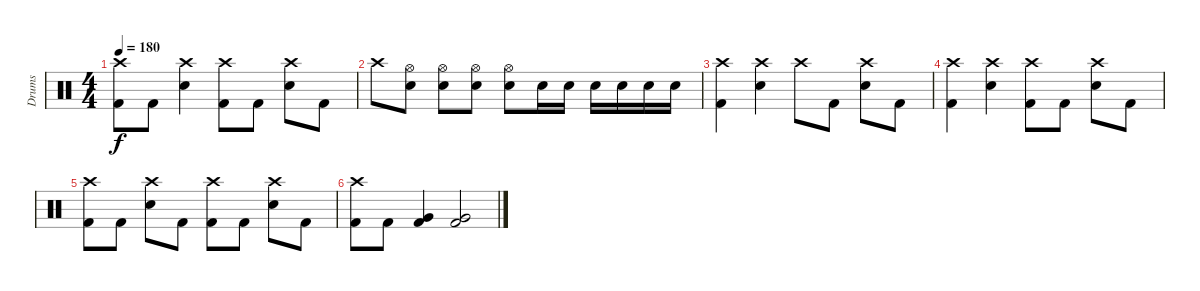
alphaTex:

\track ("Drums" "Drums") {instrument percussion}
\staff {score}
\articulation defaults
\ts (4 4)
\tempo 180
\clef neutral
\ks c
("Crash high (hit)"{t} "Kick (hit) 2"{t}).8{dy f} "Kick (hit) 2".8 ("Crash high (hit)" "Electric Snare (hit)").4 ("Crash high (hit)" "Kick (hit) 2").8 "Kick (hit) 2".8 ("Crash high (hit)" "Electric Snare (hit)").8 "Kick (hit) 2".8 |
"Crash high (hit)".8 ("Hi-Hat (open)" "Electric Snare (hit)").8 ("Hi-Hat (open)" "Electric Snare (hit)").8 ("Hi-Hat (open)" "Electric Snare (hit)").8 ("Hi-Hat (open)" "Electric Snare (hit)").8 "Electric Snare (hit)".16 "Electric Snare (hit)".16 "Electric Snare (hit)".16 "Electric Snare (hit)".16 "Electric Snare (hit)".16 "Electric Snare (hit)".16 |
("Crash high (hit)" "Kick (hit) 2").4 ("Crash high (hit)" "Electric Snare (hit)").4 "Crash high (hit)".8 "Kick (hit) 2".8 ("Crash high (hit)" "Electric Snare (hit)").8 "Kick (hit) 2".8 |
("Crash high (hit)" "Kick (hit) 2").4 ("Crash high (hit)" "Electric Snare (hit)").4 ("Crash high (hit)" "Kick (hit) 2").8 "Kick (hit) 2".8 ("Crash high (hit)" "Electric Snare (hit)").8 "Kick (hit) 2".8 |
("Crash high (hit)" "Kick (hit) 2").8 "Kick (hit) 2".8 ("Crash high (hit)" "Electric Snare (hit)").8 "Kick (hit) 2".8 ("Crash high (hit)" "Kick (hit) 2").8 "Kick (hit) 2".8 ("Crash high (hit)" "Electric Snare (hit)").8 "Kick (hit) 2".8 |
("Crash high (hit)" "Kick (hit) 2").8 "Kick (hit) 2".8 ("Very Low Tom (hit)" "Kick (hit) 2").4 ("Very Low Tom (hit)" "Kick (hit) 2").2
